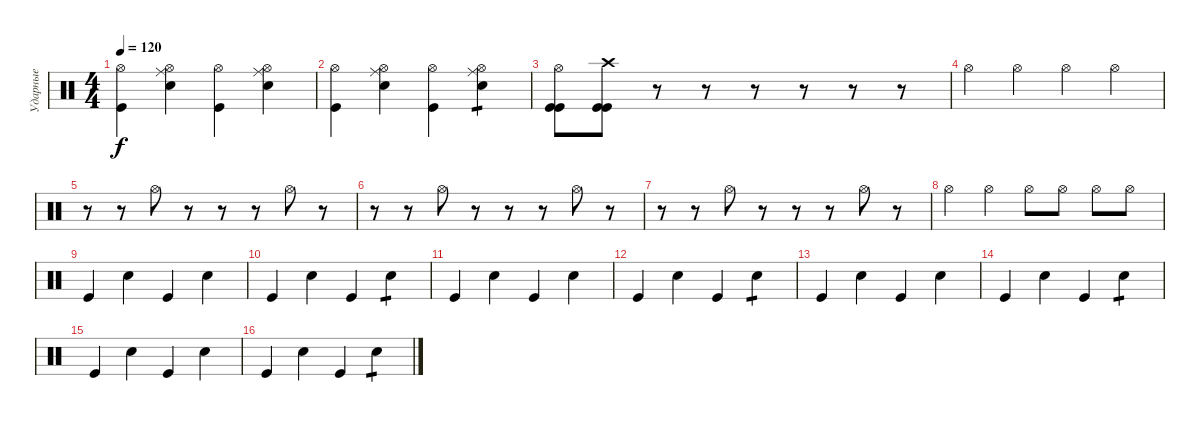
\track ("Ударные" "Ударные") {instrument percussion}
\staff {score}
\articulation defaults
\ts (4 4)
\tempo 120
\clef neutral
\ks c
("Hi-Hat (open)" "Kick (hit)").4{dy f} ("Ride (middle)" "Hi-Hat (open)" "Snare (hit) 2").4 ("Hi-Hat (open)" "Kick (hit)").4 ("Ride (middle)" "Hi-Hat (open)" "Snare (hit) 2").4 |
("Hi-Hat (open)" "Kick (hit)").4 ("Ride (middle)" "Hi-Hat (open)" "Snare (hit) 2").4 ("Hi-Hat (open)" "Kick (hit)").4 ("Ride (middle)" "Hi-Hat (open)" "Snare (hit) 2").4{tp 1} |
("Hi-Hat (open)" "Kick (hit)" "Kick (hit)").8 ("Crash high (hit)" "Kick (hit)" "Kick (hit)").8 r.8 r.8 r.8 r.8 r.8 r.8 |
"Hi-Hat (open)".4 "Hi-Hat (open)".4 "Hi-Hat (open)".4 "Hi-Hat (open)".4 |
r.8 r.8 "Hi-Hat (open)".8 r.8 r.8 r.8 "Hi-Hat (open)".8 r.8 |
r.8 r.8 "Hi-Hat (open)".8 r.8 r.8 r.8 "Hi-Hat (open)".8 r.8 |
r.8 r.8 "Hi-Hat (open)".8 r.8 r.8 r.8 "Hi-Hat (open)".8 r.8 |
"Hi-Hat (open)".4 "Hi-Hat (open)".4 "Hi-Hat (open)".8 "Hi-Hat (open)".8 "Hi-Hat (open)".8 "Hi-Hat (open)".8 |
"Kick (hit)".4 "Snare (hit) 2".4 "Kick (hit)".4 "Snare (hit) 2".4 |
"Kick (hit)".4 "Snare (hit) 2".4 "Kick (hit)".4 "Snare (hit) 2".4{tp 1} |
"Kick (hit)".4 "Snare (hit) 2".4 "Kick (hit)".4 "Snare (hit) 2".4 |
"Kick (hit)".4 "Snare (hit) 2".4 "Kick (hit)".4 "Snare (hit) 2".4{tp 1} |
"Kick (hit)".4 "Snare (hit) 2".4 "Kick (hit)".4 "Snare (hit) 2".4 |
"Kick (hit)".4 "Snare (hit) 2".4 "Kick (hit)".4 "Snare (hit) 2".4{tp 1} |
"Kick (hit)".4 "Snare (hit) 2".4 "Kick (hit)".4 "Snare (hit) 2".4 |
"Kick (hit)".4 "Snare (hit) 2".4 "Kick (hit)".4 "Snare (hit) 2".4{tp 1}
